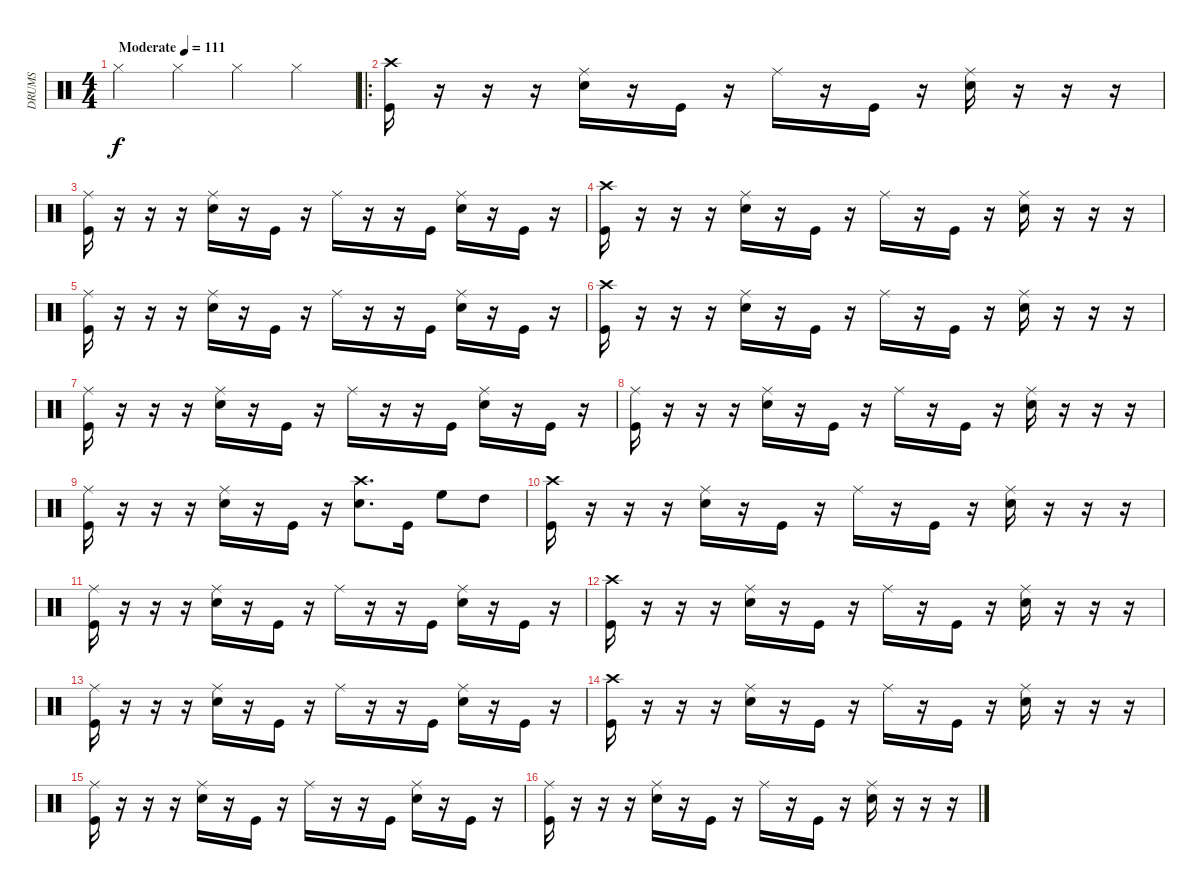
\track ("DRUMS" "DRUMS") {instrument percussion}
\staff {score}
\articulation defaults
\ts (4 4)
\tempo (111 "Moderate")
\clef neutral
\ks c "Hi-Hat (closed)".4{dy f} "Hi-Hat (closed)".4 "Hi-Hat (closed)".4 "Hi-Hat (closed)".4
|
\ro
("Crash high (hit)" "Kick (hit)").16 r.16 r.16 r.16 ("Ride (middle)" "Snare (hit) 2").16 r.16 "Kick (hit)".16 r.16 "Ride (middle)".16 r.16 "Kick (hit)".16 r.16 ("Ride (middle)" "Snare (hit) 2").16 r.16 r.16 r.16 |
("Ride (middle)" "Kick (hit)").16 r.16 r.16 r.16 ("Ride (middle)" "Snare (hit) 2").16 r.16 "Kick (hit)".16 r.16 "Ride (middle)".16 r.16 r.16 "Kick (hit)".16 ("Ride (middle)" "Snare (hit) 2").16 r.16 "Kick (hit)".16 r.16 |
("Crash high (hit)" "Kick (hit)").16 r.16 r.16 r.16 ("Ride (middle)" "Snare (hit) 2").16 r.16 "Kick (hit)".16 r.16 "Ride (middle)".16 r.16 "Kick (hit)".16 r.16 ("Ride (middle)" "Snare (hit) 2").16 r.16 r.16 r.16 |
("Ride (middle)" "Kick (hit)").16 r.16 r.16 r.16 ("Ride (middle)" "Snare (hit) 2").16 r.16 "Kick (hit)".16 r.16 "Ride (middle)".16 r.16 r.16 "Kick (hit)".16 ("Ride (middle)" "Snare (hit) 2").16 r.16 "Kick (hit)".16 r.16 |
("Crash high (hit)" "Kick (hit)").16 r.16 r.16 r.16 ("Ride (middle)" "Snare (hit) 2").16 r.16 "Kick (hit)".16 r.16 "Ride (middle)".16 r.16 "Kick (hit)".16 r.16 ("Ride (middle)" "Snare (hit) 2").16 r.16 r.16 r.16 |
("Ride (middle)" "Kick (hit)").16 r.16 r.16 r.16 ("Ride (middle)" "Snare (hit) 2").16 r.16 "Kick (hit)".16 r.16 "Ride (middle)".16 r.16 r.16 "Kick (hit)".16 ("Ride (middle)" "Snare (hit) 2").16 r.16 "Kick (hit)".16 r.16 |
("Ride (middle)" "Kick (hit)").16 r.16 r.16 r.16 ("Ride (middle)" "Snare (hit) 2").16 r.16 "Kick (hit)".16 r.16 "Ride (middle)".16 r.16 "Kick (hit)".16 r.16 ("Ride (middle)" "Snare (hit) 2").16 r.16 r.16 r.16 |
("Ride (middle)" "Kick (hit)").16 r.16 r.16 r.16 ("Ride (middle)" "Snare (hit) 2").16 r.16 "Kick (hit)".16 r.16 ("Snare (hit) 2" "Crash high (hit)").8{d} "Kick (hit)".16 "High Floor Tom (hit)".8 "High Tom (hit)".8 |
("Crash high (hit)" "Kick (hit)").16 r.16 r.16 r.16 ("Ride (middle)" "Snare (hit) 2").16 r.16 "Kick (hit)".16 r.16 "Ride (middle)".16 r.16 "Kick (hit)".16 r.16 ("Ride (middle)" "Snare (hit) 2").16 r.16 r.16 r.16 |
("Ride (middle)" "Kick (hit)").16 r.16 r.16 r.16 ("Ride (middle)" "Snare (hit) 2").16 r.16 "Kick (hit)".16 r.16 "Ride (middle)".16 r.16 r.16 "Kick (hit)".16 ("Ride (middle)" "Snare (hit) 2").16 r.16 "Kick (hit)".16 r.16 |
("Crash high (hit)" "Kick (hit)").16 r.16 r.16 r.16 ("Ride (middle)" "Snare (hit) 2").16 r.16 "Kick (hit)".16 r.16 "Ride (middle)".16 r.16 "Kick (hit)".16 r.16 ("Ride (middle)" "Snare (hit) 2").16 r.16 r.16 r.16 |
("Ride (middle)" "Kick (hit)").16 r.16 r.16 r.16 ("Ride (middle)" "Snare (hit) 2").16 r.16 "Kick (hit)".16 r.16 "Ride (middle)".16 r.16 r.16 "Kick (hit)".16 ("Ride (middle)" "Snare (hit) 2").16 r.16 "Kick (hit)".16 r.16 |
("Crash high (hit)" "Kick (hit)").16 r.16 r.16 r.16 ("Ride (middle)" "Snare (hit) 2").16 r.16 "Kick (hit)".16 r.16 "Ride (middle)".16 r.16 "Kick (hit)".16 r.16 ("Ride (middle)" "Snare (hit) 2").16 r.16 r.16 r.16 |
("Ride (middle)" "Kick (hit)").16 r.16 r.16 r.16 ("Ride (middle)" "Snare (hit) 2").16 r.16 "Kick (hit)".16 r.16 "Ride (middle)".16 r.16 r.16 "Kick (hit)".16 ("Ride (middle)" "Snare (hit) 2").16 r.16 "Kick (hit)".16 r.16 |
("Ride (middle)" "Kick (hit)").16 r.16 r.16 r.16 ("Ride (middle)" "Snare (hit) 2").16 r.16 "Kick (hit)".16 r.16 "Ride (middle)".16 r.16 "Kick (hit)".16 r.16 ("Ride (middle)" "Snare (hit) 2").16 r.16 r.16 r.16
